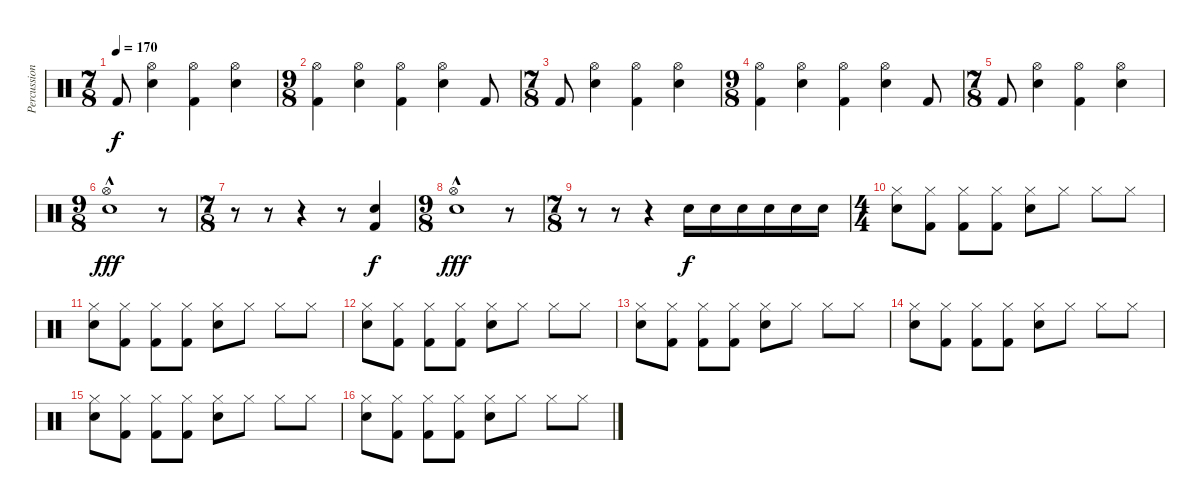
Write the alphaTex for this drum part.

\track ("Percussion" "Percussion") {instrument percussion}
\staff {score}
\articulation defaults
\ts (7 8)
\tempo 170
\clef neutral
\ks c "Kick (hit) 2".8{dy f}
("Snare (hit) 2" "Hi-Hat (open)").4 ("Kick (hit) 2" "Hi-Hat (open)").4 ("Snare (hit) 2" "Hi-Hat (open)").4 |
\ts (9 8)
("Kick (hit) 2" "Hi-Hat (open)").4 ("Snare (hit) 2" "Hi-Hat (open)").4 ("Kick (hit) 2" "Hi-Hat (open)").4 ("Snare (hit) 2" "Hi-Hat (open)").4 "Kick (hit) 2".8 |
\ts (7 8)
"Kick (hit) 2".8 ("Snare (hit) 2" "Hi-Hat (open)").4 ("Kick (hit) 2" "Hi-Hat (open)").4 ("Snare (hit) 2" "Hi-Hat (open)").4 |
\ts (9 8)
("Kick (hit) 2" "Hi-Hat (open)").4 ("Snare (hit) 2" "Hi-Hat (open)").4 ("Kick (hit) 2" "Hi-Hat (open)").4 ("Snare (hit) 2" "Hi-Hat (open)").4 "Kick (hit) 2".8 |
\ts (7 8)
"Kick (hit) 2".8 ("Snare (hit) 2" "Hi-Hat (open)").4 ("Kick (hit) 2" "Hi-Hat (open)").4 ("Snare (hit) 2" "Hi-Hat (open)").4 |
\ts (9 8)
("Snare (hit) 2" "Hi-Hat (open)"{hac}).1{dy fff} r.8 |
\ts (7 8)
r.8 r.8 r.4 r.8 ("Snare (hit) 2" "Kick (hit) 2").4{dy f} |
\ts (9 8)
("Snare (hit) 2" "Hi-Hat (open)"{hac}).1{dy fff} r.8 |
\ts (7 8)
r.8 r.8 r.4 "Snare (hit) 2".16{dy f} "Snare (hit) 2".16 "Snare (hit) 2".16 "Snare (hit) 2".16 "Snare (hit) 2".16 "Snare (hit) 2".16 |
\ts (4 4)
("Snare (hit) 2" "Hi-Hat (closed)").8 ("Kick (hit) 2" "Hi-Hat (closed)").8 ("Kick (hit) 2" "Hi-Hat (closed)").8 ("Kick (hit) 2" "Hi-Hat (closed)").8 ("Snare (hit) 2" "Hi-Hat (closed)").8 "Hi-Hat (closed)".8 "Hi-Hat (closed)".8 "Hi-Hat (closed)".8 |
("Snare (hit) 2" "Hi-Hat (closed)").8 ("Kick (hit) 2" "Hi-Hat (closed)").8 ("Kick (hit) 2" "Hi-Hat (closed)").8 ("Kick (hit) 2" "Hi-Hat (closed)").8 ("Snare (hit) 2" "Hi-Hat (closed)").8 "Hi-Hat (closed)".8 "Hi-Hat (closed)".8 "Hi-Hat (closed)".8 |
("Snare (hit) 2" "Hi-Hat (closed)").8 ("Kick (hit) 2" "Hi-Hat (closed)").8 ("Kick (hit) 2" "Hi-Hat (closed)").8 ("Kick (hit) 2" "Hi-Hat (closed)").8 ("Snare (hit) 2" "Hi-Hat (closed)").8 "Hi-Hat (closed)".8 "Hi-Hat (closed)".8 "Hi-Hat (closed)".8 |
("Snare (hit) 2" "Hi-Hat (closed)").8 ("Kick (hit) 2" "Hi-Hat (closed)").8 ("Kick (hit) 2" "Hi-Hat (closed)").8 ("Kick (hit) 2" "Hi-Hat (closed)").8 ("Snare (hit) 2" "Hi-Hat (closed)").8 "Hi-Hat (closed)".8 "Hi-Hat (closed)".8 "Hi-Hat (closed)".8 |
("Snare (hit) 2" "Hi-Hat (closed)").8 ("Kick (hit) 2" "Hi-Hat (closed)").8 ("Kick (hit) 2" "Hi-Hat (closed)").8 ("Kick (hit) 2" "Hi-Hat (closed)").8 ("Snare (hit) 2" "Hi-Hat (closed)").8 "Hi-Hat (closed)".8 "Hi-Hat (closed)".8 "Hi-Hat (closed)".8 |
("Snare (hit) 2" "Hi-Hat (closed)").8 ("Kick (hit) 2" "Hi-Hat (closed)").8 ("Kick (hit) 2" "Hi-Hat (closed)").8 ("Kick (hit) 2" "Hi-Hat (closed)").8 ("Snare (hit) 2" "Hi-Hat (closed)").8 "Hi-Hat (closed)".8 "Hi-Hat (closed)".8 "Hi-Hat (closed)".8 |
("Snare (hit) 2" "Hi-Hat (closed)").8 ("Kick (hit) 2" "Hi-Hat (closed)").8 ("Kick (hit) 2" "Hi-Hat (closed)").8 ("Kick (hit) 2" "Hi-Hat (closed)").8 ("Snare (hit) 2" "Hi-Hat (closed)").8 "Hi-Hat (closed)".8 "Hi-Hat (closed)".8 "Hi-Hat (closed)".8
